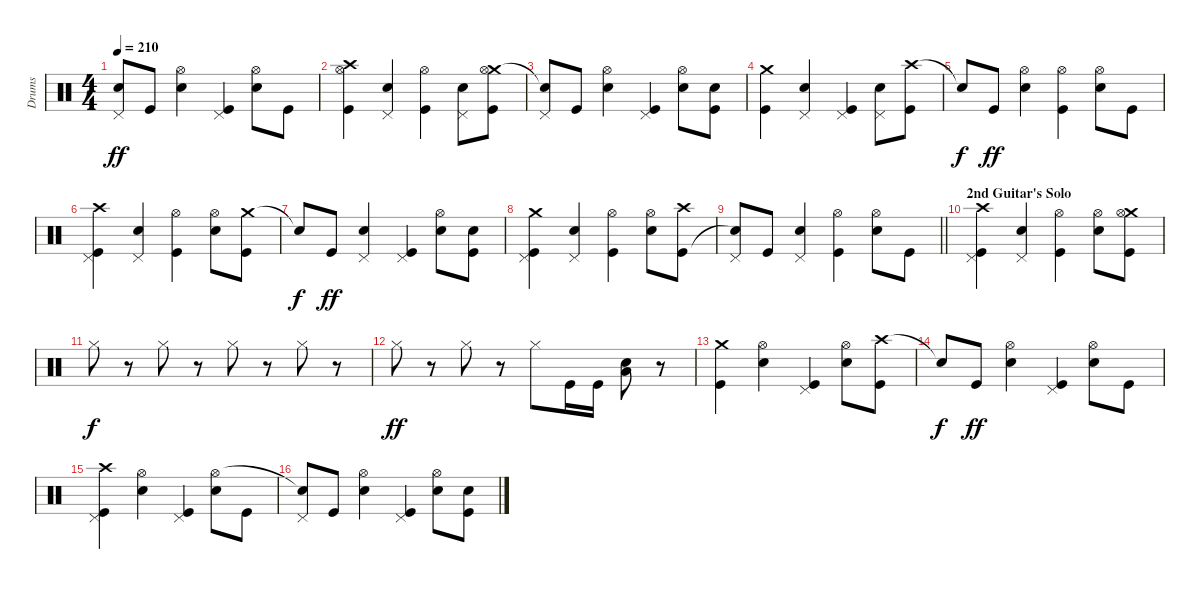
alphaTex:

\track ("Drums" "Drums") {instrument percussion}
\staff {score}
\articulation defaults
\ts (4 4)
\tempo 210
\clef neutral
\ks c
("Pedal Hi-Hat (hit)" "Snare (hit)"{t}).8{dy ff} "Kick (hit)".8 ("Electric Snare (hit)" "Hi-Hat (open)").4 ("Pedal Hi-Hat (hit)" "Kick (hit)").4 ("Electric Snare (hit)" "Hi-Hat (open)").8 "Kick (hit)".8 |
("Crash high (hit)" "Hi-Hat (open)" "Kick (hit)").4 ("Electric Snare (hit)" "Pedal Hi-Hat (hit)").4 ("Hi-Hat (open)" "Kick (hit)").4 ("Electric Snare (hit)" "Pedal Hi-Hat (hit)").8 ("Crash medium (hit)" "Hi-Hat (open)" "Kick (hit)").8 |
("Pedal Hi-Hat (hit)" "Snare (hit)"{t}).8 "Kick (hit)".8 ("Electric Snare (hit)" "Hi-Hat (open)").4 ("Pedal Hi-Hat (hit)" "Kick (hit)").4 ("Electric Snare (hit)" "Hi-Hat (open)").8 ("Electric Snare (hit)" "Kick (hit)").8 |
("Crash medium (hit)" "Kick (hit)").4 ("Electric Snare (hit)" "Pedal Hi-Hat (hit)").4 ("Pedal Hi-Hat (hit)" "Kick (hit)").4 ("Electric Snare (hit)" "Pedal Hi-Hat (hit)").8 ("Crash high (hit)" "Kick (hit)").8 |
"Snare (hit)"{t}.8{dy f} "Kick (hit)".8{dy ff} ("Electric Snare (hit)" "Hi-Hat (open)").4 ("Hi-Hat (open)" "Kick (hit)").4 ("Electric Snare (hit)" "Hi-Hat (open)").8 "Kick (hit)".8 |
("Crash high (hit)" "Pedal Hi-Hat (hit)" "Kick (hit)").4 ("Electric Snare (hit)" "Pedal Hi-Hat (hit)").4 ("Hi-Hat (open)" "Kick (hit)").4 ("Electric Snare (hit)" "Hi-Hat (open)").8 ("Crash medium (hit)" "Kick (hit)").8 |
"Snare (hit)"{t}.8{dy f} "Kick (hit)".8{dy ff} ("Electric Snare (hit)" "Pedal Hi-Hat (hit)").4 ("Pedal Hi-Hat (hit)" "Kick (hit)").4 ("Electric Snare (hit)" "Hi-Hat (open)").8 ("Electric Snare (hit)" "Kick (hit)").8 |
("Crash medium (hit)" "Pedal Hi-Hat (hit)" "Kick (hit)").4 ("Electric Snare (hit)" "Pedal Hi-Hat (hit)").4 ("Hi-Hat (open)" "Kick (hit)").4 ("Electric Snare (hit)" "Hi-Hat (open)").8 ("Crash high (hit)" "Kick (hit)").8 |
\barLineRight lightlight
("Pedal Hi-Hat (hit)" "Snare (hit)"{t}).8 "Kick (hit)".8 ("Electric Snare (hit)" "Pedal Hi-Hat (hit)").4 ("Hi-Hat (open)" "Kick (hit)").4 ("Electric Snare (hit)" "Hi-Hat (open)").8 "Kick (hit)".8 |
\section ("" "2nd Guitar's Solo")
("Crash high (hit)" "Pedal Hi-Hat (hit)" "Kick (hit)").4 ("Electric Snare (hit)" "Pedal Hi-Hat (hit)").4 ("Hi-Hat (open)" "Kick (hit)").4 ("Electric Snare (hit)" "Hi-Hat (open)").8 ("Crash medium (hit)" "Hi-Hat (open)" "Kick (hit)").8 |
"Hi-Hat (closed)".8{dy f} r.8 "Hi-Hat (closed)".8 r.8 "Hi-Hat (closed)".8 r.8 "Hi-Hat (closed)".8 r.8 |
"Hi-Hat (closed)".8{dy ff} r.8 "Hi-Hat (closed)".8 r.8 "Hi-Hat (closed)".8 "Kick (hit)".16 "Kick (hit)".16 ("Low Tom (hit)" "Electric Snare (hit)").8 r.8 |
("Crash medium (hit)" "Kick (hit)").4 ("Electric Snare (hit)" "Hi-Hat (open)").4 ("Pedal Hi-Hat (hit)" "Kick (hit)").4 ("Electric Snare (hit)" "Hi-Hat (open)").8 ("Crash high (hit)" "Kick (hit)").8 |
"Snare (hit)"{t}.8{dy f} "Kick (hit)".8{dy ff} ("Electric Snare (hit)" "Hi-Hat (open)").4 ("Pedal Hi-Hat (hit)" "Kick (hit)").4 ("Electric Snare (hit)" "Hi-Hat (open)").8 "Kick (hit)".8 |
("Crash high (hit)" "Pedal Hi-Hat (hit)" "Kick (hit)").4 ("Electric Snare (hit)" "Hi-Hat (open)").4 ("Pedal Hi-Hat (hit)" "Kick (hit)").4 ("Electric Snare (hit)" "Hi-Hat (open)").8 "Kick (hit)".8 |
("Pedal Hi-Hat (hit)" "Snare (hit)"{t}).8 "Kick (hit)".8 ("Electric Snare (hit)" "Hi-Hat (open)").4 ("Pedal Hi-Hat (hit)" "Kick (hit)").4 ("Electric Snare (hit)" "Hi-Hat (open)").8 ("Electric Snare (hit)" "Kick (hit)").8
